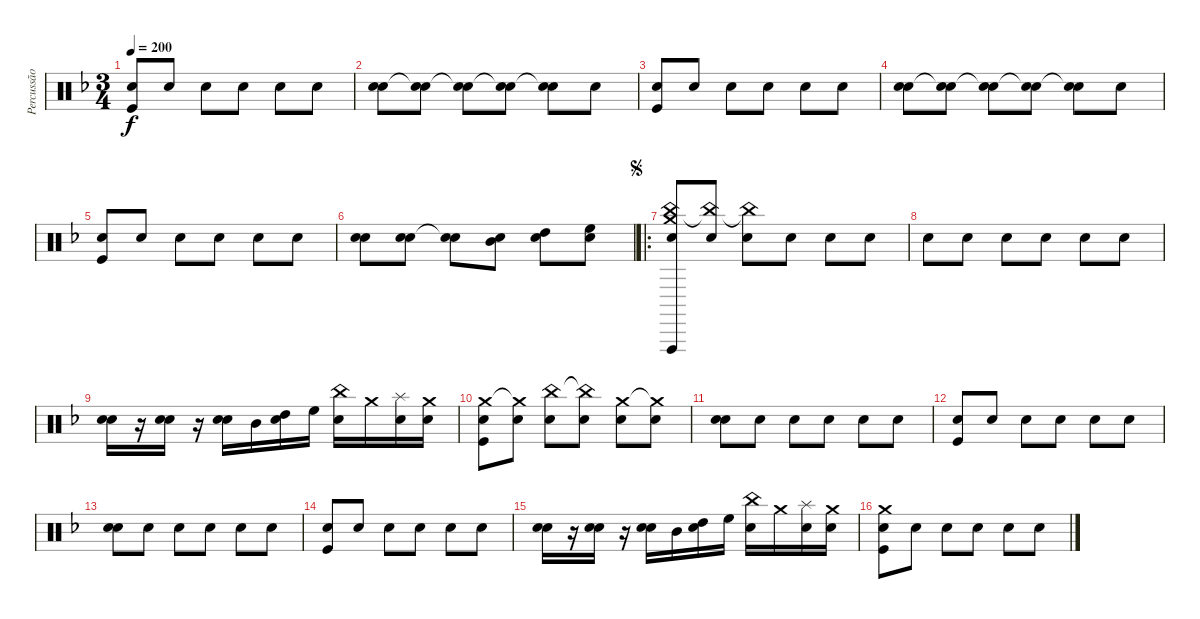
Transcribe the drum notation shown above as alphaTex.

\track ("Percussão" "Percussão") {instrument percussion}
\staff {score}
\articulation defaults
\ts (3 4)
\tempo 200
\clef neutral
\ks dminor
("Hand Clap (hit)" "Kick (hit)").8{dy f} "Hand Clap (hit)".8 "Hand Clap (hit)".8 "Hand Clap (hit)".8 "Hand Clap (hit)".8 "Hand Clap (hit)".8 |
("Hand Clap (hit)" "Snare (hit) 2").8 ("Hand Clap (hit)" "Snare (hit) 2"{t}).8 ("Hand Clap (hit)" "Snare (hit) 2"{t}).8 ("Hand Clap (hit)" "Snare (hit) 2"{t}).8 ("Hand Clap (hit)" "Snare (hit) 2"{t}).8 "Hand Clap (hit)".8 |
("Hand Clap (hit)" "Kick (hit)").8 "Hand Clap (hit)".8 "Hand Clap (hit)".8 "Hand Clap (hit)".8 "Hand Clap (hit)".8 "Hand Clap (hit)".8 |
("Hand Clap (hit)" "Snare (hit) 2").8 ("Hand Clap (hit)" "Snare (hit) 2"{t}).8 ("Hand Clap (hit)" "Snare (hit) 2"{t}).8 ("Hand Clap (hit)" "Snare (hit) 2"{t}).8 ("Hand Clap (hit)" "Snare (hit) 2"{t}).8 "Hand Clap (hit)".8 |
("Hand Clap (hit)" "Kick (hit)").8 "Hand Clap (hit)".8 "Hand Clap (hit)".8 "Hand Clap (hit)".8 "Hand Clap (hit)".8 "Hand Clap (hit)".8 |
("Hand Clap (hit)" "Snare (hit) 2").8 ("Hand Clap (hit)" "Snare (hit) 2").8 ("Hand Clap (hit)" "Snare (hit) 2"{t}).8 ("Hand Clap (hit)" "Mid Tom (hit)").8 ("Hand Clap (hit)" "High Tom (hit)").8 ("Hand Clap (hit)" "High Floor Tom (hit)").8 |
\ro
\jump segno
("Hand Clap (hit)" "China (hit)" "Crash medium (hit)" "Vibraslap (hit)").8 ("Hand Clap (hit)" "China (hit)"{t}).8 ("Hand Clap (hit)" "China (hit)"{t}).8 "Hand Clap (hit)".8 "Hand Clap (hit)".8 "Hand Clap (hit)".8 |
"Hand Clap (hit)".8 "Hand Clap (hit)".8 "Hand Clap (hit)".8 "Hand Clap (hit)".8 "Hand Clap (hit)".8 "Hand Clap (hit)".8 |
("Hand Clap (hit)" "Snare (hit) 2").16 r.16 ("Hand Clap (hit)" "Snare (hit) 2").16 r.16 ("Hand Clap (hit)" "Snare (hit) 2").16 "Mid Tom (hit)".16 ("Hand Clap (hit)" "High Tom (hit)").16 "High Floor Tom (hit)".16 ("Hand Clap (hit)" "China (hit)").16 "Crash medium (hit)".16 ("Hand Clap (hit)" "Splash (hit)").16 ("Hand Clap (hit)" "Crash medium (hit)").16 |
("Hand Clap (hit)" "Crash medium (hit)" "Kick (hit)").8 ("Hand Clap (hit)" "Crash medium (hit)"{t}).8 ("Hand Clap (hit)" "China (hit)").8 ("Hand Clap (hit)" "China (hit)"{t}).8 ("Hand Clap (hit)" "Crash medium (hit)").8 ("Hand Clap (hit)" "Crash medium (hit)"{t}).8 |
("Hand Clap (hit)" "Snare (hit) 2").8 "Hand Clap (hit)".8 "Hand Clap (hit)".8 "Hand Clap (hit)".8 "Hand Clap (hit)".8 "Hand Clap (hit)".8 |
("Hand Clap (hit)" "Kick (hit)").8 "Hand Clap (hit)".8 "Hand Clap (hit)".8 "Hand Clap (hit)".8 "Hand Clap (hit)".8 "Hand Clap (hit)".8 |
("Hand Clap (hit)" "Snare (hit) 2").8 "Hand Clap (hit)".8 "Hand Clap (hit)".8 "Hand Clap (hit)".8 "Hand Clap (hit)".8 "Hand Clap (hit)".8 |
("Hand Clap (hit)" "Kick (hit)").8 "Hand Clap (hit)".8 "Hand Clap (hit)".8 "Hand Clap (hit)".8 "Hand Clap (hit)".8 "Hand Clap (hit)".8 |
("Hand Clap (hit)" "Snare (hit) 2").16 r.16 ("Hand Clap (hit)" "Snare (hit) 2").16 r.16 ("Hand Clap (hit)" "Snare (hit) 2").16 "Mid Tom (hit)".16 ("Hand Clap (hit)" "High Tom (hit)").16 "High Floor Tom (hit)".16 ("Hand Clap (hit)" "China (hit)").16 "Crash medium (hit)".16 ("Hand Clap (hit)" "Splash (hit)").16 ("Hand Clap (hit)" "Crash medium (hit)").16 |
("Hand Clap (hit)" "Kick (hit)" "Crash medium (hit)").8 "Hand Clap (hit)".8 "Hand Clap (hit)".8 "Hand Clap (hit)".8 "Hand Clap (hit)".8 "Hand Clap (hit)".8
